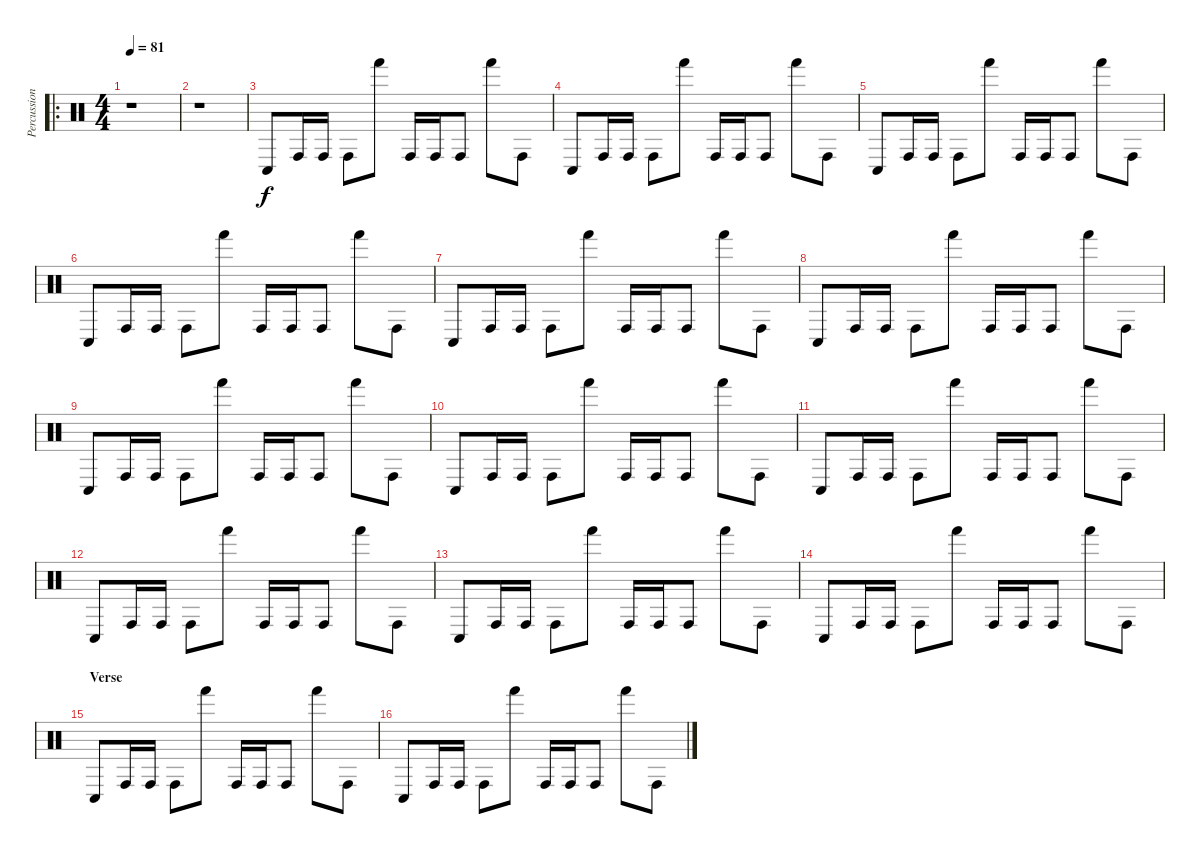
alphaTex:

\track ("Percussion" "Percussion") {instrument percussion}
\staff {score}
\articulation defaults
\ro
\ts (4 4)
\tempo 81
\clef neutral
\ks c
r.1{dy f} |
r.1 |
"Conga low (hit)".8 "Conga high (hit)".16 "Conga high (hit)".16 "Conga high (hit)".8 "Hand (hit)".8 "Conga high (hit)".16 "Conga high (hit)".16 "Conga high (hit)".8 "Hand (hit)".8 "Conga high (hit)".8 |
"Conga low (hit)".8 "Conga high (hit)".16 "Conga high (hit)".16 "Conga high (hit)".8 "Hand (hit)".8 "Conga high (hit)".16 "Conga high (hit)".16 "Conga high (hit)".8 "Hand (hit)".8 "Conga high (hit)".8 |
"Conga low (hit)".8 "Conga high (hit)".16 "Conga high (hit)".16 "Conga high (hit)".8 "Hand (hit)".8 "Conga high (hit)".16 "Conga high (hit)".16 "Conga high (hit)".8 "Hand (hit)".8 "Conga high (hit)".8 |
"Conga low (hit)".8 "Conga high (hit)".16 "Conga high (hit)".16 "Conga high (hit)".8 "Hand (hit)".8 "Conga high (hit)".16 "Conga high (hit)".16 "Conga high (hit)".8 "Hand (hit)".8 "Conga high (hit)".8 |
"Conga low (hit)".8 "Conga high (hit)".16 "Conga high (hit)".16 "Conga high (hit)".8 "Hand (hit)".8 "Conga high (hit)".16 "Conga high (hit)".16 "Conga high (hit)".8 "Hand (hit)".8 "Conga high (hit)".8 |
"Conga low (hit)".8 "Conga high (hit)".16 "Conga high (hit)".16 "Conga high (hit)".8 "Hand (hit)".8 "Conga high (hit)".16 "Conga high (hit)".16 "Conga high (hit)".8 "Hand (hit)".8 "Conga high (hit)".8 |
"Conga low (hit)".8 "Conga high (hit)".16 "Conga high (hit)".16 "Conga high (hit)".8 "Hand (hit)".8 "Conga high (hit)".16 "Conga high (hit)".16 "Conga high (hit)".8 "Hand (hit)".8 "Conga high (hit)".8 |
"Conga low (hit)".8 "Conga high (hit)".16 "Conga high (hit)".16 "Conga high (hit)".8 "Hand (hit)".8 "Conga high (hit)".16 "Conga high (hit)".16 "Conga high (hit)".8 "Hand (hit)".8 "Conga high (hit)".8 |
"Conga low (hit)".8 "Conga high (hit)".16 "Conga high (hit)".16 "Conga high (hit)".8 "Hand (hit)".8 "Conga high (hit)".16 "Conga high (hit)".16 "Conga high (hit)".8 "Hand (hit)".8 "Conga high (hit)".8 |
"Conga low (hit)".8 "Conga high (hit)".16 "Conga high (hit)".16 "Conga high (hit)".8 "Hand (hit)".8 "Conga high (hit)".16 "Conga high (hit)".16 "Conga high (hit)".8 "Hand (hit)".8 "Conga high (hit)".8 |
"Conga low (hit)".8 "Conga high (hit)".16 "Conga high (hit)".16 "Conga high (hit)".8 "Hand (hit)".8 "Conga high (hit)".16 "Conga high (hit)".16 "Conga high (hit)".8 "Hand (hit)".8 "Conga high (hit)".8 |
"Conga low (hit)".8 "Conga high (hit)".16 "Conga high (hit)".16 "Conga high (hit)".8 "Hand (hit)".8 "Conga high (hit)".16 "Conga high (hit)".16 "Conga high (hit)".8 "Hand (hit)".8 "Conga high (hit)".8 |
\section ("" "Verse")
"Conga low (hit)".8 "Conga high (hit)".16 "Conga high (hit)".16 "Conga high (hit)".8 "Hand (hit)".8 "Conga high (hit)".16 "Conga high (hit)".16 "Conga high (hit)".8 "Hand (hit)".8 "Conga high (hit)".8 |
"Conga low (hit)".8 "Conga high (hit)".16 "Conga high (hit)".16 "Conga high (hit)".8 "Hand (hit)".8 "Conga high (hit)".16 "Conga high (hit)".16 "Conga high (hit)".8 "Hand (hit)".8 "Conga high (hit)".8
